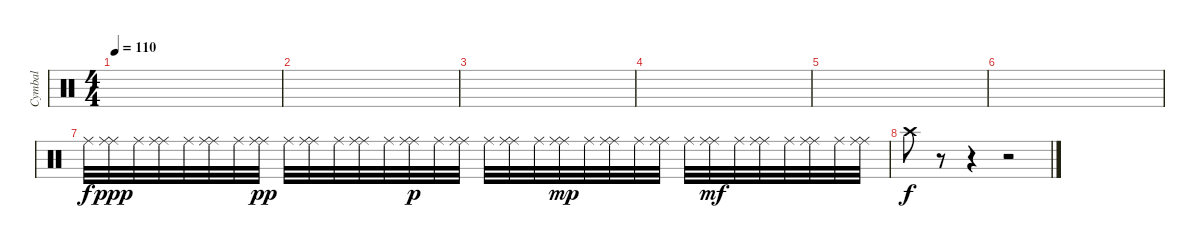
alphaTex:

\track ("Cymbal" "Cymbal") {instrument percussion}
\staff {score}
\articulation defaults
\ts (4 4)
\tempo 110
\clef neutral
\ks c
|
|
|
|
|
|
"Ride (middle)".32 ("Ride (middle)" "Ride (middle)").32{dy ppp} "Ride (middle)".32 ("Ride (middle)" "Ride (middle)").32 "Ride (middle)".32 ("Ride (middle)" "Ride (middle)").32 "Ride (middle)".32 ("Ride (middle)" "Ride (middle)").32{dy pp} "Ride (middle)".32 ("Ride (middle)" "Ride (middle)").32 "Ride (middle)".32 ("Ride (middle)" "Ride (middle)").32 "Ride (middle)".32 ("Ride (middle)" "Ride (middle)").32{dy p} "Ride (middle)".32 ("Ride (middle)" "Ride (middle)").32 "Ride (middle)".32 ("Ride (middle)" "Ride (middle)").32 "Ride (middle)".32 ("Ride (middle)" "Ride (middle)").32{dy mp} "Ride (middle)".32 ("Ride (middle)" "Ride (middle)").32 "Ride (middle)".32 ("Ride (middle)" "Ride (middle)").32 "Ride (middle)".32 ("Ride (middle)" "Ride (middle)").32{dy mf} "Ride (middle)".32 ("Ride (middle)" "Ride (middle)").32 "Ride (middle)".32 ("Ride (middle)" "Ride (middle)").32 "Ride (middle)".32 ("Ride (middle)" "Ride (middle)").32 |
"Crash high (hit)".8{dy f} r.8 r.4 r.2
